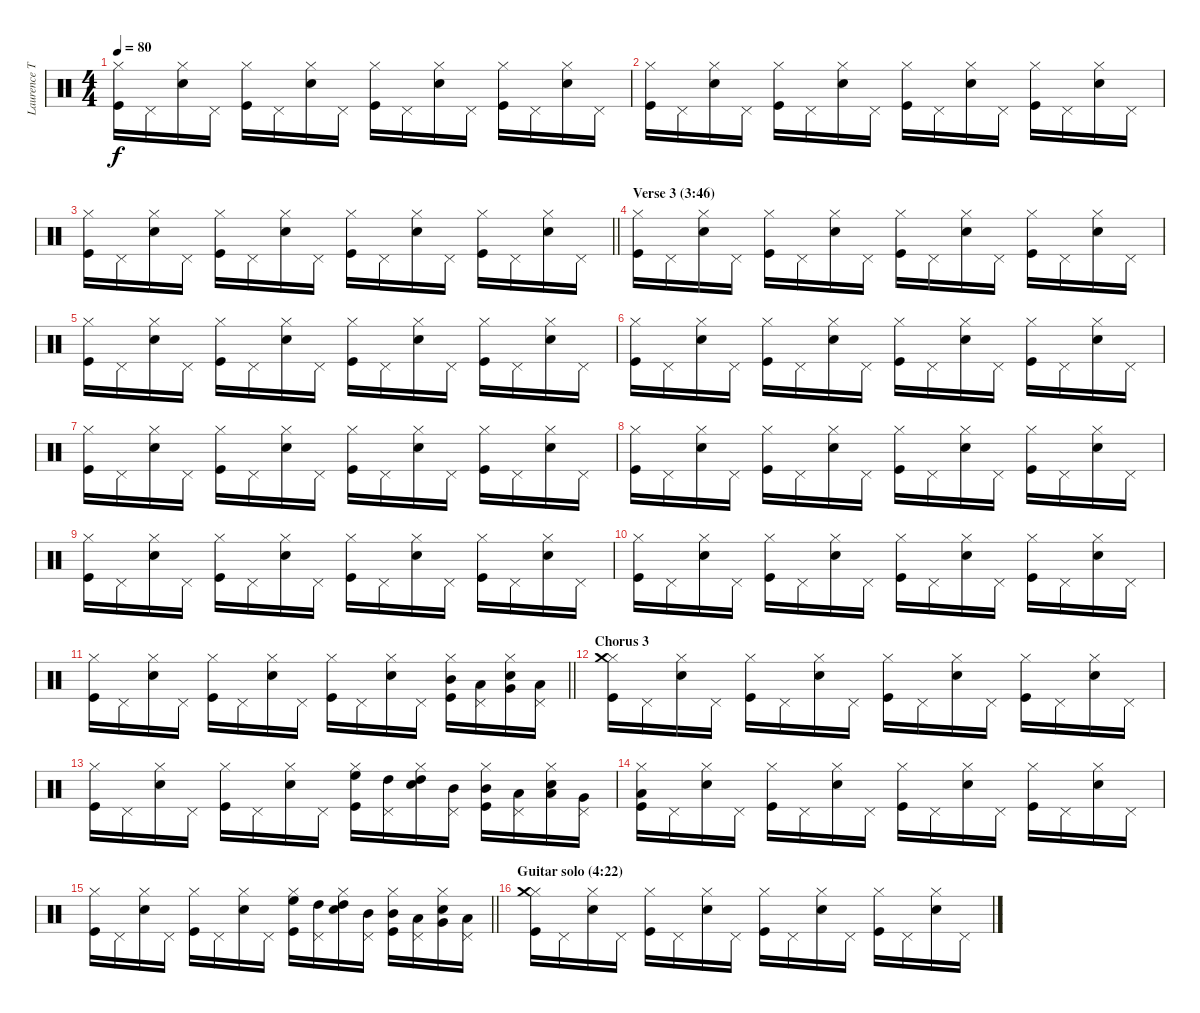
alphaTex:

\track ("Laurence Tolhurst (drums)" "Laurence T") {instrument percussion}
\staff {score}
\articulation defaults
\ts (4 4)
\tempo 80
\clef neutral
\ks c
("Kick (hit)" "Hi-Hat (closed)").16{dy f} "Pedal Hi-Hat (hit)".16 ("Snare (hit) 2" "Hi-Hat (closed)").16 "Pedal Hi-Hat (hit)".16 ("Kick (hit)" "Hi-Hat (closed)").16 "Pedal Hi-Hat (hit)".16 ("Snare (hit) 2" "Hi-Hat (closed)").16 "Pedal Hi-Hat (hit)".16 ("Kick (hit)" "Hi-Hat (closed)").16 "Pedal Hi-Hat (hit)".16 ("Snare (hit) 2" "Hi-Hat (closed)").16 "Pedal Hi-Hat (hit)".16 ("Kick (hit)" "Hi-Hat (closed)").16 "Pedal Hi-Hat (hit)".16 ("Snare (hit) 2" "Hi-Hat (closed)").16 "Pedal Hi-Hat (hit)".16 |
("Kick (hit)" "Hi-Hat (closed)").16 "Pedal Hi-Hat (hit)".16 ("Snare (hit) 2" "Hi-Hat (closed)").16 "Pedal Hi-Hat (hit)".16 ("Kick (hit)" "Hi-Hat (closed)").16 "Pedal Hi-Hat (hit)".16 ("Snare (hit) 2" "Hi-Hat (closed)").16 "Pedal Hi-Hat (hit)".16 ("Kick (hit)" "Hi-Hat (closed)").16 "Pedal Hi-Hat (hit)".16 ("Snare (hit) 2" "Hi-Hat (closed)").16 "Pedal Hi-Hat (hit)".16 ("Kick (hit)" "Hi-Hat (closed)").16 "Pedal Hi-Hat (hit)".16 ("Snare (hit) 2" "Hi-Hat (closed)").16 "Pedal Hi-Hat (hit)".16 |
\barLineRight lightlight
("Kick (hit)" "Hi-Hat (closed)").16 "Pedal Hi-Hat (hit)".16 ("Snare (hit) 2" "Hi-Hat (closed)").16 "Pedal Hi-Hat (hit)".16 ("Kick (hit)" "Hi-Hat (closed)").16 "Pedal Hi-Hat (hit)".16 ("Snare (hit) 2" "Hi-Hat (closed)").16 "Pedal Hi-Hat (hit)".16 ("Kick (hit)" "Hi-Hat (closed)").16 "Pedal Hi-Hat (hit)".16 ("Snare (hit) 2" "Hi-Hat (closed)").16 "Pedal Hi-Hat (hit)".16 ("Kick (hit)" "Hi-Hat (closed)").16 "Pedal Hi-Hat (hit)".16 ("Snare (hit) 2" "Hi-Hat (closed)").16 "Pedal Hi-Hat (hit)".16 |
\section ("" "Verse 3 (3:46)")
("Kick (hit)" "Hi-Hat (closed)").16 "Pedal Hi-Hat (hit)".16 ("Snare (hit) 2" "Hi-Hat (closed)").16 "Pedal Hi-Hat (hit)".16 ("Kick (hit)" "Hi-Hat (closed)").16 "Pedal Hi-Hat (hit)".16 ("Snare (hit) 2" "Hi-Hat (closed)").16 "Pedal Hi-Hat (hit)".16 ("Kick (hit)" "Hi-Hat (closed)").16 "Pedal Hi-Hat (hit)".16 ("Snare (hit) 2" "Hi-Hat (closed)").16 "Pedal Hi-Hat (hit)".16 ("Kick (hit)" "Hi-Hat (closed)").16 "Pedal Hi-Hat (hit)".16 ("Snare (hit) 2" "Hi-Hat (closed)").16 "Pedal Hi-Hat (hit)".16 |
("Kick (hit)" "Hi-Hat (closed)").16 "Pedal Hi-Hat (hit)".16 ("Snare (hit) 2" "Hi-Hat (closed)").16 "Pedal Hi-Hat (hit)".16 ("Kick (hit)" "Hi-Hat (closed)").16 "Pedal Hi-Hat (hit)".16 ("Snare (hit) 2" "Hi-Hat (closed)").16 "Pedal Hi-Hat (hit)".16 ("Kick (hit)" "Hi-Hat (closed)").16 "Pedal Hi-Hat (hit)".16 ("Snare (hit) 2" "Hi-Hat (closed)").16 "Pedal Hi-Hat (hit)".16 ("Kick (hit)" "Hi-Hat (closed)").16 "Pedal Hi-Hat (hit)".16 ("Snare (hit) 2" "Hi-Hat (closed)").16 "Pedal Hi-Hat (hit)".16 |
("Kick (hit)" "Hi-Hat (closed)").16 "Pedal Hi-Hat (hit)".16 ("Snare (hit) 2" "Hi-Hat (closed)").16 "Pedal Hi-Hat (hit)".16 ("Kick (hit)" "Hi-Hat (closed)").16 "Pedal Hi-Hat (hit)".16 ("Snare (hit) 2" "Hi-Hat (closed)").16 "Pedal Hi-Hat (hit)".16 ("Kick (hit)" "Hi-Hat (closed)").16 "Pedal Hi-Hat (hit)".16 ("Snare (hit) 2" "Hi-Hat (closed)").16 "Pedal Hi-Hat (hit)".16 ("Kick (hit)" "Hi-Hat (closed)").16 "Pedal Hi-Hat (hit)".16 ("Snare (hit) 2" "Hi-Hat (closed)").16 "Pedal Hi-Hat (hit)".16 |
("Kick (hit)" "Hi-Hat (closed)").16 "Pedal Hi-Hat (hit)".16 ("Snare (hit) 2" "Hi-Hat (closed)").16 "Pedal Hi-Hat (hit)".16 ("Kick (hit)" "Hi-Hat (closed)").16 "Pedal Hi-Hat (hit)".16 ("Snare (hit) 2" "Hi-Hat (closed)").16 "Pedal Hi-Hat (hit)".16 ("Kick (hit)" "Hi-Hat (closed)").16 "Pedal Hi-Hat (hit)".16 ("Snare (hit) 2" "Hi-Hat (closed)").16 "Pedal Hi-Hat (hit)".16 ("Kick (hit)" "Hi-Hat (closed)").16 "Pedal Hi-Hat (hit)".16 ("Snare (hit) 2" "Hi-Hat (closed)").16 "Pedal Hi-Hat (hit)".16 |
("Kick (hit)" "Hi-Hat (closed)").16 "Pedal Hi-Hat (hit)".16 ("Snare (hit) 2" "Hi-Hat (closed)").16 "Pedal Hi-Hat (hit)".16 ("Kick (hit)" "Hi-Hat (closed)").16 "Pedal Hi-Hat (hit)".16 ("Snare (hit) 2" "Hi-Hat (closed)").16 "Pedal Hi-Hat (hit)".16 ("Kick (hit)" "Hi-Hat (closed)").16 "Pedal Hi-Hat (hit)".16 ("Snare (hit) 2" "Hi-Hat (closed)").16 "Pedal Hi-Hat (hit)".16 ("Kick (hit)" "Hi-Hat (closed)").16 "Pedal Hi-Hat (hit)".16 ("Snare (hit) 2" "Hi-Hat (closed)").16 "Pedal Hi-Hat (hit)".16 |
("Kick (hit)" "Hi-Hat (closed)").16 "Pedal Hi-Hat (hit)".16 ("Snare (hit) 2" "Hi-Hat (closed)").16 "Pedal Hi-Hat (hit)".16 ("Kick (hit)" "Hi-Hat (closed)").16 "Pedal Hi-Hat (hit)".16 ("Snare (hit) 2" "Hi-Hat (closed)").16 "Pedal Hi-Hat (hit)".16 ("Kick (hit)" "Hi-Hat (closed)").16 "Pedal Hi-Hat (hit)".16 ("Snare (hit) 2" "Hi-Hat (closed)").16 "Pedal Hi-Hat (hit)".16 ("Kick (hit)" "Hi-Hat (closed)").16 "Pedal Hi-Hat (hit)".16 ("Snare (hit) 2" "Hi-Hat (closed)").16 "Pedal Hi-Hat (hit)".16 |
("Kick (hit)" "Hi-Hat (closed)").16 "Pedal Hi-Hat (hit)".16 ("Snare (hit) 2" "Hi-Hat (closed)").16 "Pedal Hi-Hat (hit)".16 ("Kick (hit)" "Hi-Hat (closed)").16 "Pedal Hi-Hat (hit)".16 ("Snare (hit) 2" "Hi-Hat (closed)").16 "Pedal Hi-Hat (hit)".16 ("Kick (hit)" "Hi-Hat (closed)").16 "Pedal Hi-Hat (hit)".16 ("Snare (hit) 2" "Hi-Hat (closed)").16 "Pedal Hi-Hat (hit)".16 ("Kick (hit)" "Hi-Hat (closed)").16 "Pedal Hi-Hat (hit)".16 ("Snare (hit) 2" "Hi-Hat (closed)").16 "Pedal Hi-Hat (hit)".16 |
\barLineRight lightlight
("Kick (hit)" "Hi-Hat (closed)").16 "Pedal Hi-Hat (hit)".16 ("Snare (hit) 2" "Hi-Hat (closed)").16 "Pedal Hi-Hat (hit)".16 ("Kick (hit)" "Hi-Hat (closed)").16 "Pedal Hi-Hat (hit)".16 ("Snare (hit) 2" "Hi-Hat (closed)").16 "Pedal Hi-Hat (hit)".16 ("Kick (hit)" "Hi-Hat (closed)").16 "Pedal Hi-Hat (hit)".16 ("Snare (hit) 2" "Hi-Hat (closed)").16 "Pedal Hi-Hat (hit)".16 ("Kick (hit)" "Hi-Hat (closed)" "Mid Tom (hit)").16 ("Pedal Hi-Hat (hit)" "Low Tom (hit)").16 ("Snare (hit) 2" "Hi-Hat (closed)" "Very Low Tom (hit)").16 ("Pedal Hi-Hat (hit)" "Low Floor Tom (hit)").16 |
\section ("" "Chorus 3")
("Kick (hit)" "Hi-Hat (closed)" "Crash medium (hit)").16 "Pedal Hi-Hat (hit)".16 ("Snare (hit) 2" "Hi-Hat (closed)").16 "Pedal Hi-Hat (hit)".16 ("Kick (hit)" "Hi-Hat (closed)").16 "Pedal Hi-Hat (hit)".16 ("Snare (hit) 2" "Hi-Hat (closed)").16 "Pedal Hi-Hat (hit)".16 ("Kick (hit)" "Hi-Hat (closed)").16 "Pedal Hi-Hat (hit)".16 ("Snare (hit) 2" "Hi-Hat (closed)").16 "Pedal Hi-Hat (hit)".16 ("Kick (hit)" "Hi-Hat (closed)").16 "Pedal Hi-Hat (hit)".16 ("Snare (hit) 2" "Hi-Hat (closed)").16 "Pedal Hi-Hat (hit)".16 |
("Kick (hit)" "Hi-Hat (closed)").16 "Pedal Hi-Hat (hit)".16 ("Snare (hit) 2" "Hi-Hat (closed)").16 "Pedal Hi-Hat (hit)".16 ("Kick (hit)" "Hi-Hat (closed)").16 "Pedal Hi-Hat (hit)".16 ("Snare (hit) 2" "Hi-Hat (closed)").16 "Pedal Hi-Hat (hit)".16 ("Kick (hit)" "Hi-Hat (closed)" "High Floor Tom (hit)").16 ("Pedal Hi-Hat (hit)" "High Tom (hit)").16 ("Snare (hit) 2" "Hi-Hat (closed)" "High Tom (hit)").16 ("Pedal Hi-Hat (hit)" "Mid Tom (hit)").16 ("Kick (hit)" "Hi-Hat (closed)" "Mid Tom (hit)").16 ("Pedal Hi-Hat (hit)" "Low Tom (hit)").16 ("Snare (hit) 2" "Hi-Hat (closed)" "Low Tom (hit)").16 ("Pedal Hi-Hat (hit)" "Very Low Tom (hit)").16 |
("Kick (hit)" "Hi-Hat (closed)" "Low Floor Tom (hit)").16 "Pedal Hi-Hat (hit)".16 ("Snare (hit) 2" "Hi-Hat (closed)").16 "Pedal Hi-Hat (hit)".16 ("Kick (hit)" "Hi-Hat (closed)").16 "Pedal Hi-Hat (hit)".16 ("Snare (hit) 2" "Hi-Hat (closed)").16 "Pedal Hi-Hat (hit)".16 ("Kick (hit)" "Hi-Hat (closed)").16 "Pedal Hi-Hat (hit)".16 ("Snare (hit) 2" "Hi-Hat (closed)").16 "Pedal Hi-Hat (hit)".16 ("Kick (hit)" "Hi-Hat (closed)").16 "Pedal Hi-Hat (hit)".16 ("Snare (hit) 2" "Hi-Hat (closed)").16 "Pedal Hi-Hat (hit)".16 |
\barLineRight lightlight
("Kick (hit)" "Hi-Hat (closed)").16 "Pedal Hi-Hat (hit)".16 ("Snare (hit) 2" "Hi-Hat (closed)").16 "Pedal Hi-Hat (hit)".16 ("Kick (hit)" "Hi-Hat (closed)").16 "Pedal Hi-Hat (hit)".16 ("Snare (hit) 2" "Hi-Hat (closed)").16 "Pedal Hi-Hat (hit)".16 ("Kick (hit)" "Hi-Hat (closed)" "High Floor Tom (hit)").16 ("Pedal Hi-Hat (hit)" "High Tom (hit)").16 ("Snare (hit) 2" "Hi-Hat (closed)" "High Tom (hit)").16 ("Pedal Hi-Hat (hit)" "Mid Tom (hit)").16 ("Kick (hit)" "Hi-Hat (closed)" "Mid Tom (hit)").16 ("Pedal Hi-Hat (hit)" "Low Tom (hit)").16 ("Snare (hit) 2" "Hi-Hat (closed)" "Very Low Tom (hit)").16 ("Pedal Hi-Hat (hit)" "Low Floor Tom (hit)").16 |
\section ("" "Guitar solo (4:22)")
("Kick (hit)" "Hi-Hat (closed)" "Crash medium (hit)").16 "Pedal Hi-Hat (hit)".16 ("Snare (hit) 2" "Hi-Hat (closed)").16 "Pedal Hi-Hat (hit)".16 ("Kick (hit)" "Hi-Hat (closed)").16 "Pedal Hi-Hat (hit)".16 ("Snare (hit) 2" "Hi-Hat (closed)").16 "Pedal Hi-Hat (hit)".16 ("Kick (hit)" "Hi-Hat (closed)").16 "Pedal Hi-Hat (hit)".16 ("Snare (hit) 2" "Hi-Hat (closed)").16 "Pedal Hi-Hat (hit)".16 ("Kick (hit)" "Hi-Hat (closed)").16 "Pedal Hi-Hat (hit)".16 ("Snare (hit) 2" "Hi-Hat (closed)").16 "Pedal Hi-Hat (hit)".16
